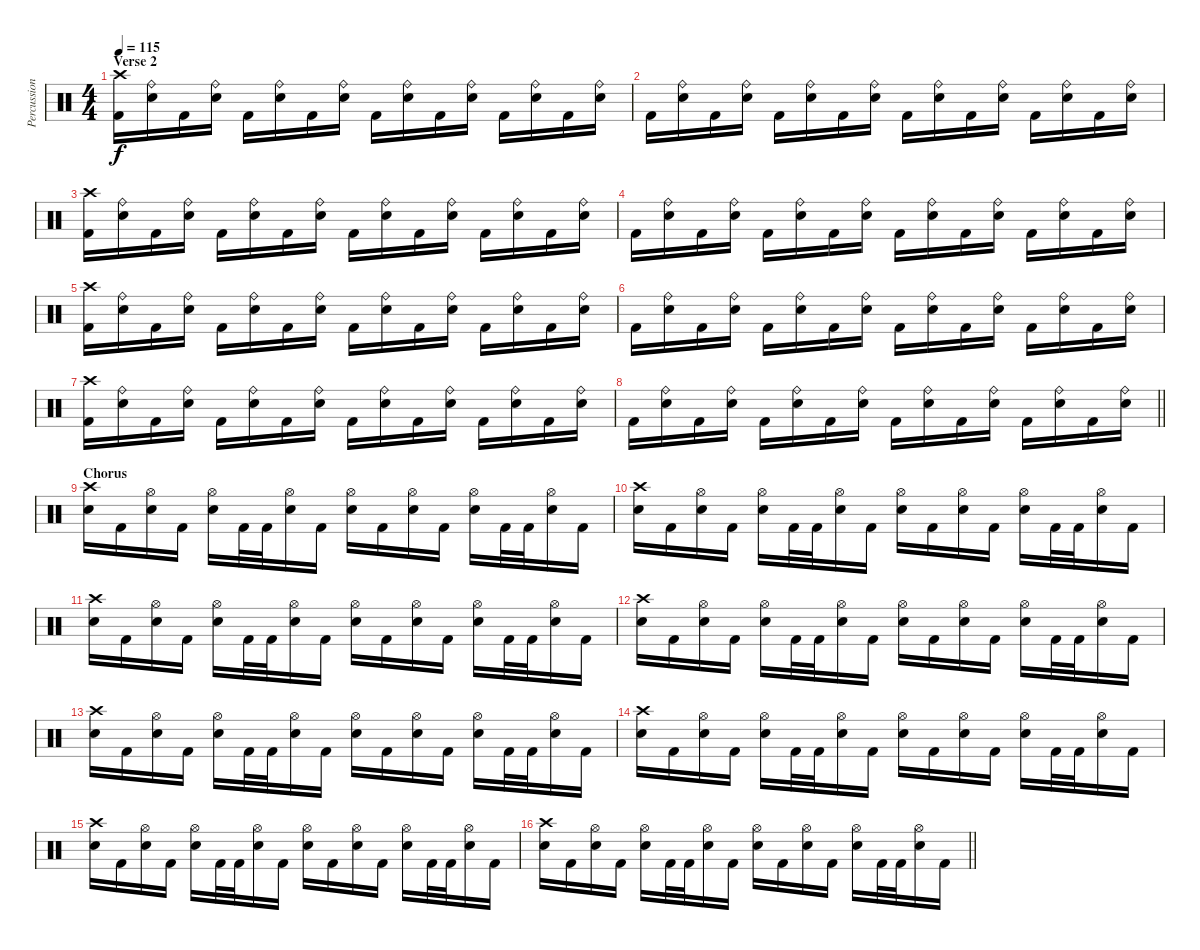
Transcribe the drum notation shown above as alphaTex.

\track ("Percussion" "Percussion") {instrument percussion}
\staff {score}
\articulation defaults
\ts (4 4)
\section ("" "Verse 2")
\tempo 115
\clef neutral
\ks c
("Crash high (hit)" "Kick (hit) 2").16{dy f} ("Ride (bell)" "Snare (hit) 2").16 "Kick (hit) 2".16 ("Ride (bell)" "Snare (hit) 2").16 "Kick (hit) 2".16 ("Ride (bell)" "Snare (hit) 2").16 "Kick (hit) 2".16 ("Ride (bell)" "Snare (hit) 2").16 "Kick (hit) 2".16 ("Ride (bell)" "Snare (hit) 2").16 "Kick (hit) 2".16 ("Ride (bell)" "Snare (hit) 2").16 "Kick (hit) 2".16 ("Ride (bell)" "Snare (hit) 2").16 "Kick (hit) 2".16 ("Ride (bell)" "Snare (hit) 2").16 |
"Kick (hit) 2".16 ("Ride (bell)" "Snare (hit) 2").16 "Kick (hit) 2".16 ("Ride (bell)" "Snare (hit) 2").16 "Kick (hit) 2".16 ("Ride (bell)" "Snare (hit) 2").16 "Kick (hit) 2".16 ("Ride (bell)" "Snare (hit) 2").16 "Kick (hit) 2".16 ("Ride (bell)" "Snare (hit) 2").16 "Kick (hit) 2".16 ("Ride (bell)" "Snare (hit) 2").16 "Kick (hit) 2".16 ("Ride (bell)" "Snare (hit) 2").16 "Kick (hit) 2".16 ("Ride (bell)" "Snare (hit) 2").16 |
("Crash high (hit)" "Kick (hit) 2").16 ("Ride (bell)" "Snare (hit) 2").16 "Kick (hit) 2".16 ("Ride (bell)" "Snare (hit) 2").16 "Kick (hit) 2".16 ("Ride (bell)" "Snare (hit) 2").16 "Kick (hit) 2".16 ("Ride (bell)" "Snare (hit) 2").16 "Kick (hit) 2".16 ("Ride (bell)" "Snare (hit) 2").16 "Kick (hit) 2".16 ("Ride (bell)" "Snare (hit) 2").16 "Kick (hit) 2".16 ("Ride (bell)" "Snare (hit) 2").16 "Kick (hit) 2".16 ("Ride (bell)" "Snare (hit) 2").16 |
"Kick (hit) 2".16 ("Ride (bell)" "Snare (hit) 2").16 "Kick (hit) 2".16 ("Ride (bell)" "Snare (hit) 2").16 "Kick (hit) 2".16 ("Ride (bell)" "Snare (hit) 2").16 "Kick (hit) 2".16 ("Ride (bell)" "Snare (hit) 2").16 "Kick (hit) 2".16 ("Ride (bell)" "Snare (hit) 2").16 "Kick (hit) 2".16 ("Ride (bell)" "Snare (hit) 2").16 "Kick (hit) 2".16 ("Ride (bell)" "Snare (hit) 2").16 "Kick (hit) 2".16 ("Ride (bell)" "Snare (hit) 2").16 |
("Crash high (hit)" "Kick (hit) 2").16 ("Ride (bell)" "Snare (hit) 2").16 "Kick (hit) 2".16 ("Ride (bell)" "Snare (hit) 2").16 "Kick (hit) 2".16 ("Ride (bell)" "Snare (hit) 2").16 "Kick (hit) 2".16 ("Ride (bell)" "Snare (hit) 2").16 "Kick (hit) 2".16 ("Ride (bell)" "Snare (hit) 2").16 "Kick (hit) 2".16 ("Ride (bell)" "Snare (hit) 2").16 "Kick (hit) 2".16 ("Ride (bell)" "Snare (hit) 2").16 "Kick (hit) 2".16 ("Ride (bell)" "Snare (hit) 2").16 |
"Kick (hit) 2".16 ("Ride (bell)" "Snare (hit) 2").16 "Kick (hit) 2".16 ("Ride (bell)" "Snare (hit) 2").16 "Kick (hit) 2".16 ("Ride (bell)" "Snare (hit) 2").16 "Kick (hit) 2".16 ("Ride (bell)" "Snare (hit) 2").16 "Kick (hit) 2".16 ("Ride (bell)" "Snare (hit) 2").16 "Kick (hit) 2".16 ("Ride (bell)" "Snare (hit) 2").16 "Kick (hit) 2".16 ("Ride (bell)" "Snare (hit) 2").16 "Kick (hit) 2".16 ("Ride (bell)" "Snare (hit) 2").16 |
("Crash high (hit)" "Kick (hit) 2").16 ("Ride (bell)" "Snare (hit) 2").16 "Kick (hit) 2".16 ("Ride (bell)" "Snare (hit) 2").16 "Kick (hit) 2".16 ("Ride (bell)" "Snare (hit) 2").16 "Kick (hit) 2".16 ("Ride (bell)" "Snare (hit) 2").16 "Kick (hit) 2".16 ("Ride (bell)" "Snare (hit) 2").16 "Kick (hit) 2".16 ("Ride (bell)" "Snare (hit) 2").16 "Kick (hit) 2".16 ("Ride (bell)" "Snare (hit) 2").16 "Kick (hit) 2".16 ("Ride (bell)" "Snare (hit) 2").16 |
\barLineRight lightlight "Kick (hit) 2".16
("Ride (bell)" "Snare (hit) 2").16 "Kick (hit) 2".16 ("Ride (bell)" "Snare (hit) 2").16 "Kick (hit) 2".16 ("Ride (bell)" "Snare (hit) 2").16 "Kick (hit) 2".16 ("Ride (bell)" "Snare (hit) 2").16 "Kick (hit) 2".16 ("Ride (bell)" "Snare (hit) 2").16 "Kick (hit) 2".16 ("Ride (bell)" "Snare (hit) 2").16 "Kick (hit) 2".16 ("Ride (bell)" "Snare (hit) 2").16 "Kick (hit) 2".16 ("Ride (bell)" "Snare (hit) 2").16 |
\section ("" "Chorus")
("Crash high (hit)" "Snare (hit) 2").16 "Kick (hit) 2".16 ("Hi-Hat (open)" "Snare (hit) 2").16 "Kick (hit) 2".16 ("Hi-Hat (open)" "Snare (hit) 2").16 "Kick (hit) 2".32 "Kick (hit) 2".32 ("Hi-Hat (open)" "Snare (hit) 2").16 "Kick (hit) 2".16 ("Hi-Hat (open)" "Snare (hit) 2").16 "Kick (hit) 2".16 ("Hi-Hat (open)" "Snare (hit) 2").16 "Kick (hit) 2".16 ("Hi-Hat (open)" "Snare (hit) 2").16 "Kick (hit) 2".32 "Kick (hit) 2".32 ("Hi-Hat (open)" "Snare (hit) 2").16 "Kick (hit) 2".16 |
("Crash high (hit)" "Snare (hit) 2").16 "Kick (hit) 2".16 ("Hi-Hat (open)" "Snare (hit) 2").16 "Kick (hit) 2".16 ("Hi-Hat (open)" "Snare (hit) 2").16 "Kick (hit) 2".32 "Kick (hit) 2".32 ("Hi-Hat (open)" "Snare (hit) 2").16 "Kick (hit) 2".16 ("Hi-Hat (open)" "Snare (hit) 2").16 "Kick (hit) 2".16 ("Hi-Hat (open)" "Snare (hit) 2").16 "Kick (hit) 2".16 ("Hi-Hat (open)" "Snare (hit) 2").16 "Kick (hit) 2".32 "Kick (hit) 2".32 ("Hi-Hat (open)" "Snare (hit) 2").16 "Kick (hit) 2".16 |
("Crash high (hit)" "Snare (hit) 2").16 "Kick (hit) 2".16 ("Hi-Hat (open)" "Snare (hit) 2").16 "Kick (hit) 2".16 ("Hi-Hat (open)" "Snare (hit) 2").16 "Kick (hit) 2".32 "Kick (hit) 2".32 ("Hi-Hat (open)" "Snare (hit) 2").16 "Kick (hit) 2".16 ("Hi-Hat (open)" "Snare (hit) 2").16 "Kick (hit) 2".16 ("Hi-Hat (open)" "Snare (hit) 2").16 "Kick (hit) 2".16 ("Hi-Hat (open)" "Snare (hit) 2").16 "Kick (hit) 2".32 "Kick (hit) 2".32 ("Hi-Hat (open)" "Snare (hit) 2").16 "Kick (hit) 2".16 |
("Crash high (hit)" "Snare (hit) 2").16 "Kick (hit) 2".16 ("Hi-Hat (open)" "Snare (hit) 2").16 "Kick (hit) 2".16 ("Hi-Hat (open)" "Snare (hit) 2").16 "Kick (hit) 2".32 "Kick (hit) 2".32 ("Hi-Hat (open)" "Snare (hit) 2").16 "Kick (hit) 2".16 ("Hi-Hat (open)" "Snare (hit) 2").16 "Kick (hit) 2".16 ("Hi-Hat (open)" "Snare (hit) 2").16 "Kick (hit) 2".16 ("Hi-Hat (open)" "Snare (hit) 2").16 "Kick (hit) 2".32 "Kick (hit) 2".32 ("Hi-Hat (open)" "Snare (hit) 2").16 "Kick (hit) 2".16 |
("Crash high (hit)" "Snare (hit) 2").16 "Kick (hit) 2".16 ("Hi-Hat (open)" "Snare (hit) 2").16 "Kick (hit) 2".16 ("Hi-Hat (open)" "Snare (hit) 2").16 "Kick (hit) 2".32 "Kick (hit) 2".32 ("Hi-Hat (open)" "Snare (hit) 2").16 "Kick (hit) 2".16 ("Hi-Hat (open)" "Snare (hit) 2").16 "Kick (hit) 2".16 ("Hi-Hat (open)" "Snare (hit) 2").16 "Kick (hit) 2".16 ("Hi-Hat (open)" "Snare (hit) 2").16 "Kick (hit) 2".32 "Kick (hit) 2".32 ("Hi-Hat (open)" "Snare (hit) 2").16 "Kick (hit) 2".16 |
("Crash high (hit)" "Snare (hit) 2").16 "Kick (hit) 2".16 ("Hi-Hat (open)" "Snare (hit) 2").16 "Kick (hit) 2".16 ("Hi-Hat (open)" "Snare (hit) 2").16 "Kick (hit) 2".32 "Kick (hit) 2".32 ("Hi-Hat (open)" "Snare (hit) 2").16 "Kick (hit) 2".16 ("Hi-Hat (open)" "Snare (hit) 2").16 "Kick (hit) 2".16 ("Hi-Hat (open)" "Snare (hit) 2").16 "Kick (hit) 2".16 ("Hi-Hat (open)" "Snare (hit) 2").16 "Kick (hit) 2".32 "Kick (hit) 2".32 ("Hi-Hat (open)" "Snare (hit) 2").16 "Kick (hit) 2".16 |
("Crash high (hit)" "Snare (hit) 2").16 "Kick (hit) 2".16 ("Hi-Hat (open)" "Snare (hit) 2").16 "Kick (hit) 2".16 ("Hi-Hat (open)" "Snare (hit) 2").16 "Kick (hit) 2".32 "Kick (hit) 2".32 ("Hi-Hat (open)" "Snare (hit) 2").16 "Kick (hit) 2".16 ("Hi-Hat (open)" "Snare (hit) 2").16 "Kick (hit) 2".16 ("Hi-Hat (open)" "Snare (hit) 2").16 "Kick (hit) 2".16 ("Hi-Hat (open)" "Snare (hit) 2").16 "Kick (hit) 2".32 "Kick (hit) 2".32 ("Hi-Hat (open)" "Snare (hit) 2").16 "Kick (hit) 2".16 |
\barLineRight lightlight
("Crash high (hit)" "Snare (hit) 2").16 "Kick (hit) 2".16 ("Hi-Hat (open)" "Snare (hit) 2").16 "Kick (hit) 2".16 ("Hi-Hat (open)" "Snare (hit) 2").16 "Kick (hit) 2".32 "Kick (hit) 2".32 ("Hi-Hat (open)" "Snare (hit) 2").16 "Kick (hit) 2".16 ("Hi-Hat (open)" "Snare (hit) 2").16 "Kick (hit) 2".16 ("Hi-Hat (open)" "Snare (hit) 2").16 "Kick (hit) 2".16 ("Hi-Hat (open)" "Snare (hit) 2").16 "Kick (hit) 2".32 "Kick (hit) 2".32 ("Hi-Hat (open)" "Snare (hit) 2").16 "Kick (hit) 2".16
